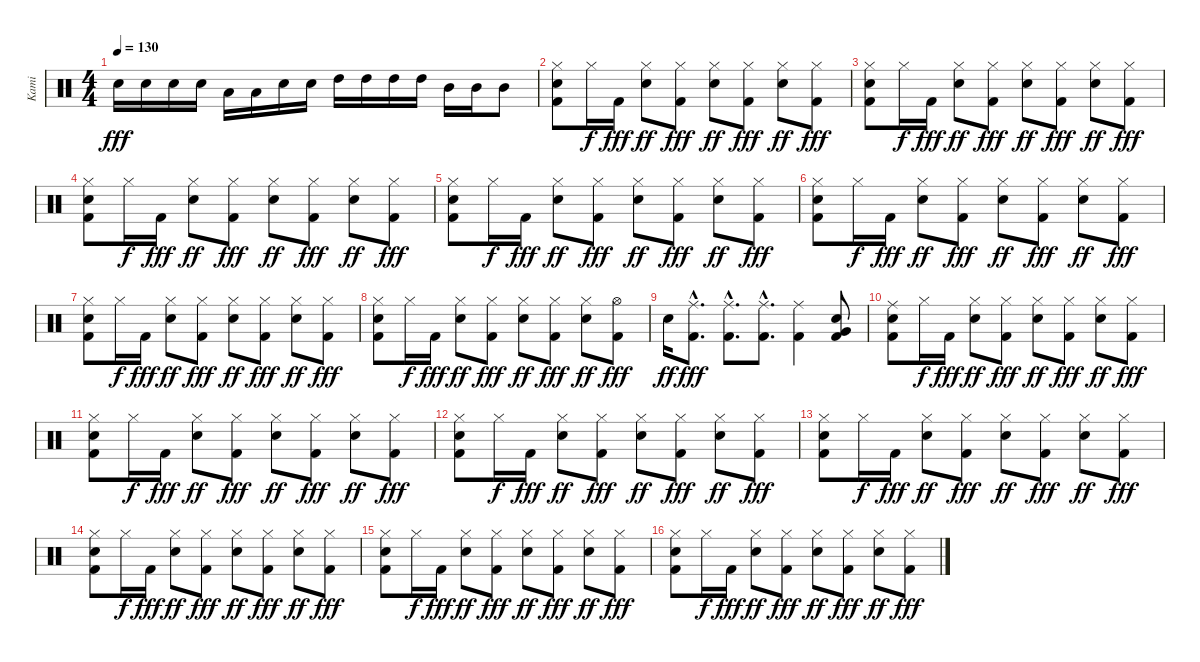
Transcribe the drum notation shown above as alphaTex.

\track ("Kami" "Kami") {instrument percussion}
\staff {score}
\articulation defaults
\ts (4 4)
\tempo 130
\clef neutral
\ks c "Snare (hit) 2".16{dy fff} "Snare (hit) 2".16 "Snare (hit) 2".16 "Snare (hit) 2".16 "Low Tom (hit)".16 "Low Tom (hit)".16 "Snare (hit) 2".16 "Snare (hit) 2".16 "High Tom (hit)".16 "High Tom (hit)".16 "High Tom (hit)".16 "High Tom (hit)".16 "Mid Tom (hit)".16 "Mid Tom (hit)".16 "Mid Tom (hit)".8
|
("Hi-Hat (closed)" "Snare (hit) 2" "Kick (hit) 2").8 "Hi-Hat (closed)".16{dy f} "Kick (hit) 2".16{dy fff} ("Hi-Hat (closed)" "Snare (hit) 2").8{dy ff} ("Hi-Hat (closed)" "Kick (hit) 2").8{dy fff} ("Hi-Hat (closed)" "Snare (hit) 2").8{dy ff} ("Hi-Hat (closed)" "Kick (hit) 2").8{dy fff} ("Hi-Hat (closed)" "Snare (hit) 2").8{dy ff} ("Hi-Hat (closed)" "Kick (hit) 2").8{dy fff} |
("Hi-Hat (closed)" "Snare (hit) 2" "Kick (hit) 2").8 "Hi-Hat (closed)".16{dy f} "Kick (hit) 2".16{dy fff} ("Hi-Hat (closed)" "Snare (hit) 2").8{dy ff} ("Hi-Hat (closed)" "Kick (hit) 2").8{dy fff} ("Hi-Hat (closed)" "Snare (hit) 2").8{dy ff} ("Hi-Hat (closed)" "Kick (hit) 2").8{dy fff} ("Hi-Hat (closed)" "Snare (hit) 2").8{dy ff} ("Hi-Hat (closed)" "Kick (hit) 2").8{dy fff} |
("Hi-Hat (closed)" "Snare (hit) 2" "Kick (hit) 2").8 "Hi-Hat (closed)".16{dy f} "Kick (hit) 2".16{dy fff} ("Hi-Hat (closed)" "Snare (hit) 2").8{dy ff} ("Hi-Hat (closed)" "Kick (hit) 2").8{dy fff} ("Hi-Hat (closed)" "Snare (hit) 2").8{dy ff} ("Hi-Hat (closed)" "Kick (hit) 2").8{dy fff} ("Hi-Hat (closed)" "Snare (hit) 2").8{dy ff} ("Hi-Hat (closed)" "Kick (hit) 2").8{dy fff} |
("Hi-Hat (closed)" "Snare (hit) 2" "Kick (hit) 2").8 "Hi-Hat (closed)".16{dy f} "Kick (hit) 2".16{dy fff} ("Hi-Hat (closed)" "Snare (hit) 2").8{dy ff} ("Hi-Hat (closed)" "Kick (hit) 2").8{dy fff} ("Hi-Hat (closed)" "Snare (hit) 2").8{dy ff} ("Hi-Hat (closed)" "Kick (hit) 2").8{dy fff} ("Hi-Hat (closed)" "Snare (hit) 2").8{dy ff} ("Hi-Hat (closed)" "Kick (hit) 2").8{dy fff} |
("Hi-Hat (closed)" "Snare (hit) 2" "Kick (hit) 2").8 "Hi-Hat (closed)".16{dy f} "Kick (hit) 2".16{dy fff} ("Hi-Hat (closed)" "Snare (hit) 2").8{dy ff} ("Hi-Hat (closed)" "Kick (hit) 2").8{dy fff} ("Hi-Hat (closed)" "Snare (hit) 2").8{dy ff} ("Hi-Hat (closed)" "Kick (hit) 2").8{dy fff} ("Hi-Hat (closed)" "Snare (hit) 2").8{dy ff} ("Hi-Hat (closed)" "Kick (hit) 2").8{dy fff} |
("Hi-Hat (closed)" "Snare (hit) 2" "Kick (hit) 2").8 "Hi-Hat (closed)".16{dy f} "Kick (hit) 2".16{dy fff} ("Hi-Hat (closed)" "Snare (hit) 2").8{dy ff} ("Hi-Hat (closed)" "Kick (hit) 2").8{dy fff} ("Hi-Hat (closed)" "Snare (hit) 2").8{dy ff} ("Hi-Hat (closed)" "Kick (hit) 2").8{dy fff} ("Hi-Hat (closed)" "Snare (hit) 2").8{dy ff} ("Hi-Hat (closed)" "Kick (hit) 2").8{dy fff} |
("Hi-Hat (closed)" "Snare (hit) 2" "Kick (hit) 2").8 "Hi-Hat (closed)".16{dy f} "Kick (hit) 2".16{dy fff} ("Hi-Hat (closed)" "Snare (hit) 2").8{dy ff} ("Hi-Hat (closed)" "Kick (hit) 2").8{dy fff} ("Hi-Hat (closed)" "Snare (hit) 2").8{dy ff} ("Hi-Hat (closed)" "Kick (hit) 2").8{dy fff} ("Hi-Hat (closed)" "Snare (hit) 2").8{dy ff} ("Hi-Hat (open)" "Kick (hit) 2").8{dy fff} |
"Snare (hit) 2".16{dy ff} ("Ride (middle)"{hac} "Kick (hit) 2"{hac}).8{d dy fff} ("Ride (middle)"{hac} "Kick (hit) 2"{hac}).8{d} ("Ride (middle)"{hac} "Kick (hit) 2"{hac}).8{d} ("Ride (middle)" "Kick (hit) 2").4 ("Snare (hit) 2" "Very Low Tom (hit)" "Kick (hit) 2").8 |
("Ride (middle)" "Snare (hit) 2" "Kick (hit) 2").8 "Hi-Hat (closed)".16{dy f} "Kick (hit) 2".16{dy fff} ("Hi-Hat (closed)" "Snare (hit) 2").8{dy ff} ("Hi-Hat (closed)" "Kick (hit) 2").8{dy fff} ("Hi-Hat (closed)" "Snare (hit) 2").8{dy ff} ("Hi-Hat (closed)" "Kick (hit) 2").8{dy fff} ("Hi-Hat (closed)" "Snare (hit) 2").8{dy ff} ("Hi-Hat (closed)" "Kick (hit) 2").8{dy fff} |
("Hi-Hat (closed)" "Snare (hit) 2" "Kick (hit) 2").8 "Hi-Hat (closed)".16{dy f} "Kick (hit) 2".16{dy fff} ("Hi-Hat (closed)" "Snare (hit) 2").8{dy ff} ("Hi-Hat (closed)" "Kick (hit) 2").8{dy fff} ("Hi-Hat (closed)" "Snare (hit) 2").8{dy ff} ("Hi-Hat (closed)" "Kick (hit) 2").8{dy fff} ("Hi-Hat (closed)" "Snare (hit) 2").8{dy ff} ("Hi-Hat (closed)" "Kick (hit) 2").8{dy fff} |
("Hi-Hat (closed)" "Snare (hit) 2" "Kick (hit) 2").8 "Hi-Hat (closed)".16{dy f} "Kick (hit) 2".16{dy fff} ("Hi-Hat (closed)" "Snare (hit) 2").8{dy ff} ("Hi-Hat (closed)" "Kick (hit) 2").8{dy fff} ("Hi-Hat (closed)" "Snare (hit) 2").8{dy ff} ("Hi-Hat (closed)" "Kick (hit) 2").8{dy fff} ("Hi-Hat (closed)" "Snare (hit) 2").8{dy ff} ("Hi-Hat (closed)" "Kick (hit) 2").8{dy fff} |
("Hi-Hat (closed)" "Snare (hit) 2" "Kick (hit) 2").8 "Hi-Hat (closed)".16{dy f} "Kick (hit) 2".16{dy fff} ("Hi-Hat (closed)" "Snare (hit) 2").8{dy ff} ("Hi-Hat (closed)" "Kick (hit) 2").8{dy fff} ("Hi-Hat (closed)" "Snare (hit) 2").8{dy ff} ("Hi-Hat (closed)" "Kick (hit) 2").8{dy fff} ("Hi-Hat (closed)" "Snare (hit) 2").8{dy ff} ("Hi-Hat (closed)" "Kick (hit) 2").8{dy fff} |
("Hi-Hat (closed)" "Snare (hit) 2" "Kick (hit) 2").8 "Hi-Hat (closed)".16{dy f} "Kick (hit) 2".16{dy fff} ("Hi-Hat (closed)" "Snare (hit) 2").8{dy ff} ("Hi-Hat (closed)" "Kick (hit) 2").8{dy fff} ("Hi-Hat (closed)" "Snare (hit) 2").8{dy ff} ("Hi-Hat (closed)" "Kick (hit) 2").8{dy fff} ("Hi-Hat (closed)" "Snare (hit) 2").8{dy ff} ("Hi-Hat (closed)" "Kick (hit) 2").8{dy fff} |
("Hi-Hat (closed)" "Snare (hit) 2" "Kick (hit) 2").8 "Hi-Hat (closed)".16{dy f} "Kick (hit) 2".16{dy fff} ("Hi-Hat (closed)" "Snare (hit) 2").8{dy ff} ("Hi-Hat (closed)" "Kick (hit) 2").8{dy fff} ("Hi-Hat (closed)" "Snare (hit) 2").8{dy ff} ("Hi-Hat (closed)" "Kick (hit) 2").8{dy fff} ("Hi-Hat (closed)" "Snare (hit) 2").8{dy ff} ("Hi-Hat (closed)" "Kick (hit) 2").8{dy fff} |
("Hi-Hat (closed)" "Snare (hit) 2" "Kick (hit) 2").8 "Hi-Hat (closed)".16{dy f} "Kick (hit) 2".16{dy fff} ("Hi-Hat (closed)" "Snare (hit) 2").8{dy ff} ("Hi-Hat (closed)" "Kick (hit) 2").8{dy fff} ("Hi-Hat (closed)" "Snare (hit) 2").8{dy ff} ("Hi-Hat (closed)" "Kick (hit) 2").8{dy fff} ("Hi-Hat (closed)" "Snare (hit) 2").8{dy ff} ("Hi-Hat (closed)" "Kick (hit) 2").8{dy fff}
